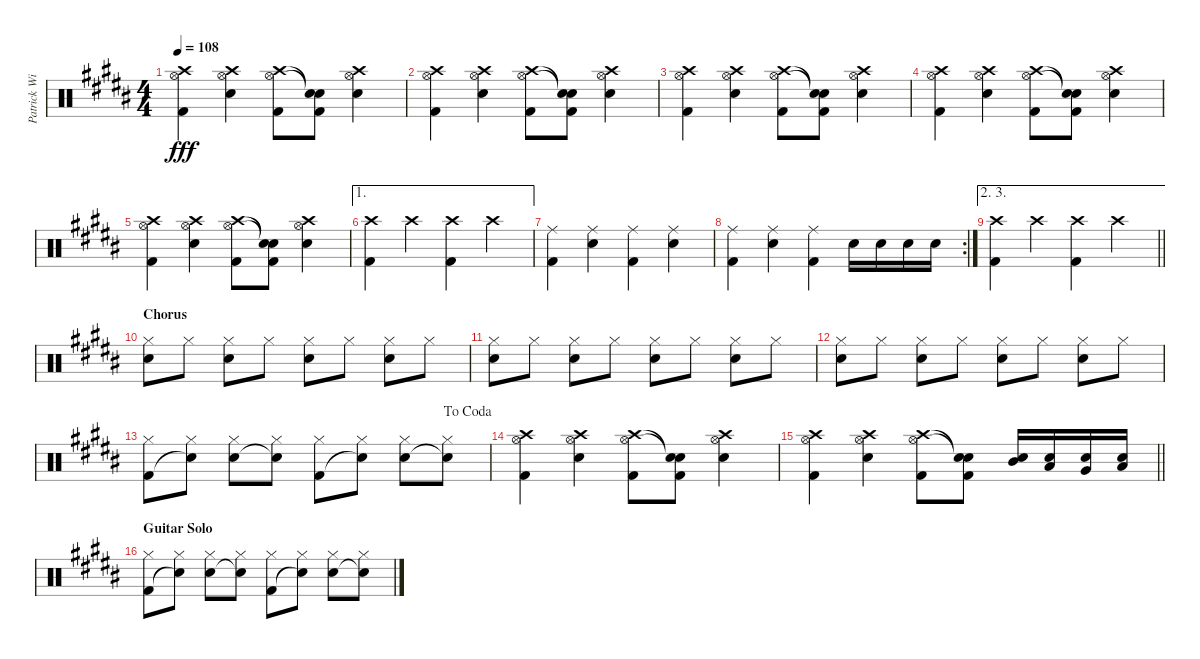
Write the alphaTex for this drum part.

\track ("Patrick Wilson - Drums" "Patrick Wi") {instrument percussion}
\staff {score}
\articulation defaults
\ts (4 4)
\tempo 108
\clef neutral
\ks b
("Crash high (hit)" "Hi-Hat (open)" "Kick (hit) 2").4{dy fff} ("Crash high (hit)" "Hi-Hat (open)" "Electric Snare (hit)").4 ("Crash high (hit)" "Hi-Hat (open)" "Kick (hit) 2").8 ("Snare (hit)"{t} "Snare (hit)"{t} "Kick (hit) 2").8 ("Crash high (hit)" "Hi-Hat (open)" "Electric Snare (hit)").4 |
("Crash high (hit)" "Hi-Hat (open)" "Kick (hit) 2").4 ("Crash high (hit)" "Hi-Hat (open)" "Electric Snare (hit)").4 ("Crash high (hit)" "Hi-Hat (open)" "Kick (hit) 2").8 ("Snare (hit)"{t} "Snare (hit)"{t} "Kick (hit) 2").8 ("Crash high (hit)" "Hi-Hat (open)" "Electric Snare (hit)").4 |
("Crash high (hit)" "Hi-Hat (open)" "Kick (hit) 2").4 ("Crash high (hit)" "Hi-Hat (open)" "Electric Snare (hit)").4 ("Crash high (hit)" "Hi-Hat (open)" "Kick (hit) 2").8 ("Snare (hit)"{t} "Snare (hit)"{t} "Kick (hit) 2").8 ("Crash high (hit)" "Hi-Hat (open)" "Electric Snare (hit)").4 |
("Crash high (hit)" "Hi-Hat (open)" "Kick (hit) 2").4 ("Crash high (hit)" "Hi-Hat (open)" "Electric Snare (hit)").4 ("Crash high (hit)" "Hi-Hat (open)" "Kick (hit) 2").8 ("Snare (hit)"{t} "Snare (hit)"{t} "Kick (hit) 2").8 ("Crash high (hit)" "Hi-Hat (open)" "Electric Snare (hit)").4 |
("Crash high (hit)" "Hi-Hat (open)" "Kick (hit) 2").4 ("Crash high (hit)" "Hi-Hat (open)" "Electric Snare (hit)").4 ("Crash high (hit)" "Hi-Hat (open)" "Kick (hit) 2").8 ("Snare (hit)"{t} "Snare (hit)"{t} "Kick (hit) 2").8 ("Crash high (hit)" "Hi-Hat (open)" "Electric Snare (hit)").4 |
\ae 1
("Crash high (hit)" "Kick (hit) 2").4 "Crash high (hit)".4 ("Crash high (hit)" "Kick (hit) 2").4 "Crash high (hit)".4 |
("Ride (middle)" "Kick (hit) 2").4 ("Ride (middle)" "Electric Snare (hit)").4 ("Ride (middle)" "Kick (hit) 2").4 ("Ride (middle)" "Electric Snare (hit)").4 |
\rc 2
("Ride (middle)" "Kick (hit) 2").4 ("Ride (middle)" "Electric Snare (hit)").4 ("Ride (middle)" "Kick (hit) 2").4 "Electric Snare (hit)".16 "Electric Snare (hit)".16 "Electric Snare (hit)".16 "Electric Snare (hit)".16 |
\ae (2 3)
\barLineRight lightlight
("Crash high (hit)" "Kick (hit) 2").4 "Crash high (hit)".4 ("Crash high (hit)" "Kick (hit) 2").4 "Crash high (hit)".4 |
\section ("" "Chorus")
("Hi-Hat (closed)" "Electric Snare (hit)").8 "Hi-Hat (closed)".8 ("Hi-Hat (closed)" "Electric Snare (hit)").8 "Hi-Hat (closed)".8 ("Hi-Hat (closed)" "Electric Snare (hit)").8 "Hi-Hat (closed)".8 ("Hi-Hat (closed)" "Electric Snare (hit)").8 "Hi-Hat (closed)".8 |
("Hi-Hat (closed)" "Electric Snare (hit)").8 "Hi-Hat (closed)".8 ("Hi-Hat (closed)" "Electric Snare (hit)").8 "Hi-Hat (closed)".8 ("Hi-Hat (closed)" "Electric Snare (hit)").8 "Hi-Hat (closed)".8 ("Hi-Hat (closed)" "Electric Snare (hit)").8 "Hi-Hat (closed)".8 |
("Hi-Hat (closed)" "Electric Snare (hit)").8 "Hi-Hat (closed)".8 ("Hi-Hat (closed)" "Electric Snare (hit)").8 "Hi-Hat (closed)".8 ("Hi-Hat (closed)" "Electric Snare (hit)").8 "Hi-Hat (closed)".8 ("Hi-Hat (closed)" "Electric Snare (hit)").8 "Hi-Hat (closed)".8 |
\jump dacoda
("Hi-Hat (closed)" "Kick (hit) 2").8 ("Hi-Hat (closed)" "Snare (hit)"{t}).8 ("Hi-Hat (closed)" "Electric Snare (hit)").8 ("Hi-Hat (closed)" "Snare (hit)"{t}).8 ("Hi-Hat (closed)" "Kick (hit) 2").8 ("Hi-Hat (closed)" "Snare (hit)"{t}).8 ("Hi-Hat (closed)" "Electric Snare (hit)").8 ("Hi-Hat (closed)" "Snare (hit)"{t}).8 |
("Crash high (hit)" "Hi-Hat (open)" "Kick (hit) 2").4 ("Crash high (hit)" "Hi-Hat (open)" "Electric Snare (hit)").4 ("Crash high (hit)" "Hi-Hat (open)" "Kick (hit) 2").8 ("Snare (hit)"{t} "Snare (hit)"{t} "Kick (hit) 2").8 ("Crash high (hit)" "Hi-Hat (open)" "Electric Snare (hit)").4 |
\barLineRight lightlight
("Crash high (hit)" "Hi-Hat (open)" "Kick (hit) 2").4 ("Crash high (hit)" "Hi-Hat (open)" "Electric Snare (hit)").4 ("Crash high (hit)" "Hi-Hat (open)" "Kick (hit) 2").8 ("Snare (hit)"{t} "Snare (hit)"{t} "Kick (hit) 2").8 ("Mid Tom (hit)" "Electric Snare (hit)").16 ("Low Tom (hit)" "Electric Snare (hit)").16 ("Very Low Tom (hit)" "Electric Snare (hit)").16 ("Low Floor Tom (hit)" "Electric Snare (hit)").16 |
\section ("" "Guitar Solo")
("Hi-Hat (closed)" "Kick (hit) 2").8 ("Hi-Hat (closed)" "Snare (hit)"{t}).8 ("Hi-Hat (closed)" "Electric Snare (hit)").8 ("Hi-Hat (closed)" "Snare (hit)"{t}).8 ("Hi-Hat (closed)" "Kick (hit) 2").8 ("Hi-Hat (closed)" "Snare (hit)"{t}).8 ("Hi-Hat (closed)" "Electric Snare (hit)").8 ("Hi-Hat (closed)" "Snare (hit)"{t}).8
